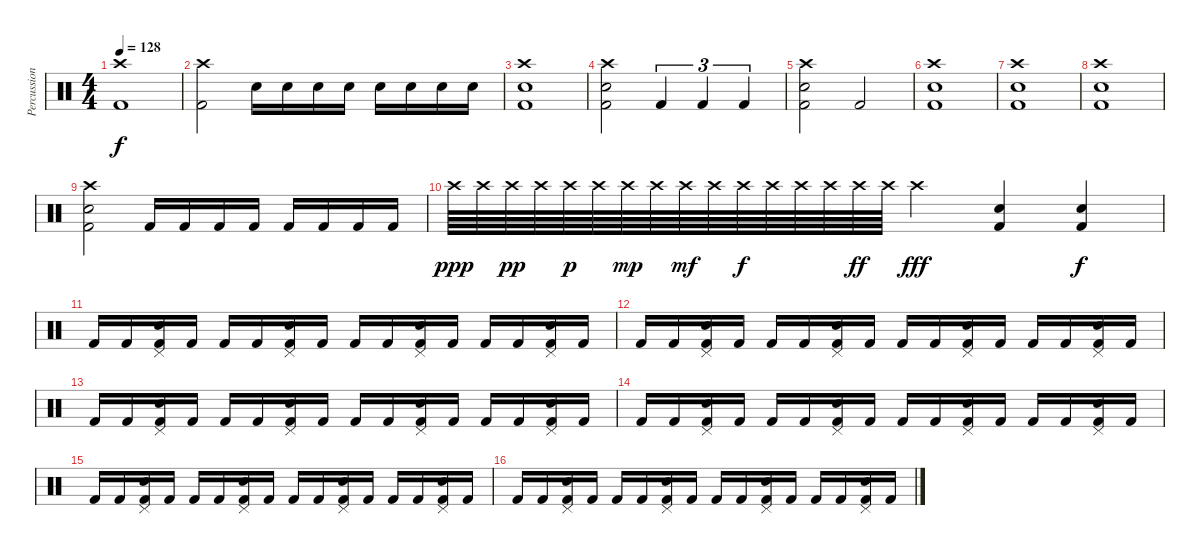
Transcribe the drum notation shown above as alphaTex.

\track ("Percussion" "Percussion") {instrument percussion}
\staff {score}
\articulation defaults
\ts (4 4)
\tempo 128
\clef neutral
\ks c
("Crash high (hit)" "Kick (hit) 2").1{dy f} |
("Crash high (hit)" "Kick (hit) 2").2 "Snare (hit) 2".16 "Snare (hit) 2".16 "Snare (hit) 2".16 "Snare (hit) 2".16 "Snare (hit) 2".16 "Snare (hit) 2".16 "Snare (hit) 2".16 "Snare (hit) 2".16 |
("Crash high (hit)" "Snare (hit) 2" "Kick (hit) 2").1 |
("Crash high (hit)" "Snare (hit) 2" "Kick (hit) 2").2 "Kick (hit) 2".4{tu (3 2)} "Kick (hit) 2".4{tu (3 2)} "Kick (hit) 2".4{tu (3 2)} |
("Crash high (hit)" "Snare (hit) 2" "Kick (hit) 2").2 "Kick (hit) 2".2 |
("Crash high (hit)" "Snare (hit) 2" "Kick (hit) 2").1 |
("Crash high (hit)" "Snare (hit) 2" "Kick (hit) 2").1 |
("Crash high (hit)" "Snare (hit) 2" "Kick (hit) 2").1 |
("Crash high (hit)" "Snare (hit) 2" "Kick (hit) 2").2 "Kick (hit) 2".16 "Kick (hit) 2".16 "Kick (hit) 2".16 "Kick (hit) 2".16 "Kick (hit) 2".16 "Kick (hit) 2".16 "Kick (hit) 2".16 "Kick (hit) 2".16 |
"Crash high (hit)".64{dy ppp} "Crash high (hit)".64 "Crash high (hit)".64{dy pp} "Crash high (hit)".64 "Crash high (hit)".64{dy p} "Crash high (hit)".64 "Crash high (hit)".64{dy mp} "Crash high (hit)".64 "Crash high (hit)".64{dy mf} "Crash high (hit)".64 "Crash high (hit)".64{dy f} "Crash high (hit)".64 "Crash high (hit)".64 "Crash high (hit)".64 "Crash high (hit)".64{dy ff} "Crash high (hit)".64 "Crash high (hit)".4{dy fff} ("Snare (hit) 2" "Kick (hit) 2").4 ("Snare (hit) 2" "Kick (hit) 2").4{dy f} |
"Kick (hit) 2".16 "Kick (hit) 2".16 ("Pedal Hi-Hat (hit)" "Snare (hit) 2" "Kick (hit) 2").16 "Kick (hit) 2".16 "Kick (hit) 2".16 "Kick (hit) 2".16 ("Pedal Hi-Hat (hit)" "Snare (hit) 2" "Kick (hit) 2").16 "Kick (hit) 2".16 "Kick (hit) 2".16 "Kick (hit) 2".16 ("Pedal Hi-Hat (hit)" "Snare (hit) 2" "Kick (hit) 2").16 "Kick (hit) 2".16 "Kick (hit) 2".16 "Kick (hit) 2".16 ("Pedal Hi-Hat (hit)" "Snare (hit) 2" "Kick (hit) 2").16 "Kick (hit) 2".16 |
"Kick (hit) 2".16 "Kick (hit) 2".16 ("Pedal Hi-Hat (hit)" "Snare (hit) 2" "Kick (hit) 2").16 "Kick (hit) 2".16 "Kick (hit) 2".16 "Kick (hit) 2".16 ("Pedal Hi-Hat (hit)" "Snare (hit) 2" "Kick (hit) 2").16 "Kick (hit) 2".16 "Kick (hit) 2".16 "Kick (hit) 2".16 ("Pedal Hi-Hat (hit)" "Snare (hit) 2" "Kick (hit) 2").16 "Kick (hit) 2".16 "Kick (hit) 2".16 "Kick (hit) 2".16 ("Pedal Hi-Hat (hit)" "Snare (hit) 2" "Kick (hit) 2").16 "Kick (hit) 2".16 |
"Kick (hit) 2".16 "Kick (hit) 2".16 ("Pedal Hi-Hat (hit)" "Snare (hit) 2" "Kick (hit) 2").16 "Kick (hit) 2".16 "Kick (hit) 2".16 "Kick (hit) 2".16 ("Pedal Hi-Hat (hit)" "Snare (hit) 2" "Kick (hit) 2").16 "Kick (hit) 2".16 "Kick (hit) 2".16 "Kick (hit) 2".16 ("Pedal Hi-Hat (hit)" "Snare (hit) 2" "Kick (hit) 2").16 "Kick (hit) 2".16 "Kick (hit) 2".16 "Kick (hit) 2".16 ("Pedal Hi-Hat (hit)" "Snare (hit) 2" "Kick (hit) 2").16 "Kick (hit) 2".16 |
"Kick (hit) 2".16 "Kick (hit) 2".16 ("Pedal Hi-Hat (hit)" "Snare (hit) 2" "Kick (hit) 2").16 "Kick (hit) 2".16 "Kick (hit) 2".16 "Kick (hit) 2".16 ("Pedal Hi-Hat (hit)" "Snare (hit) 2" "Kick (hit) 2").16 "Kick (hit) 2".16 "Kick (hit) 2".16 "Kick (hit) 2".16 ("Pedal Hi-Hat (hit)" "Snare (hit) 2" "Kick (hit) 2").16 "Kick (hit) 2".16 "Kick (hit) 2".16 "Kick (hit) 2".16 ("Pedal Hi-Hat (hit)" "Snare (hit) 2" "Kick (hit) 2").16 "Kick (hit) 2".16 |
"Kick (hit) 2".16 "Kick (hit) 2".16 ("Pedal Hi-Hat (hit)" "Snare (hit) 2" "Kick (hit) 2").16 "Kick (hit) 2".16 "Kick (hit) 2".16 "Kick (hit) 2".16 ("Pedal Hi-Hat (hit)" "Snare (hit) 2" "Kick (hit) 2").16 "Kick (hit) 2".16 "Kick (hit) 2".16 "Kick (hit) 2".16 ("Pedal Hi-Hat (hit)" "Snare (hit) 2" "Kick (hit) 2").16 "Kick (hit) 2".16 "Kick (hit) 2".16 "Kick (hit) 2".16 ("Pedal Hi-Hat (hit)" "Snare (hit) 2" "Kick (hit) 2").16 "Kick (hit) 2".16 |
"Kick (hit) 2".16 "Kick (hit) 2".16 ("Pedal Hi-Hat (hit)" "Snare (hit) 2" "Kick (hit) 2").16 "Kick (hit) 2".16 "Kick (hit) 2".16 "Kick (hit) 2".16 ("Pedal Hi-Hat (hit)" "Snare (hit) 2" "Kick (hit) 2").16 "Kick (hit) 2".16 "Kick (hit) 2".16 "Kick (hit) 2".16 ("Pedal Hi-Hat (hit)" "Snare (hit) 2" "Kick (hit) 2").16 "Kick (hit) 2".16 "Kick (hit) 2".16 "Kick (hit) 2".16 ("Pedal Hi-Hat (hit)" "Snare (hit) 2" "Kick (hit) 2").16 "Kick (hit) 2".16
